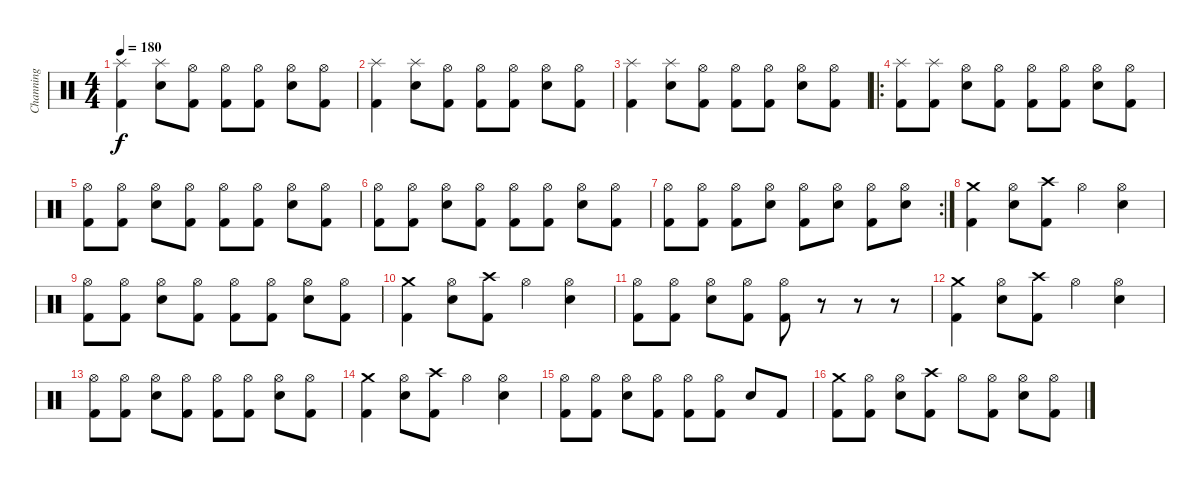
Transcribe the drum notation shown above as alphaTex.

\track ("Channing" "Channing") {instrument percussion}
\staff {score}
\articulation defaults
\ts (4 4)
\tempo 180
\clef neutral
\ks c
("Splash (hit)" "Kick (hit) 2").4{dy f} ("Splash (hit)" "Snare (hit) 2").8 ("Hi-Hat (open)" "Kick (hit) 2").8 ("Hi-Hat (open)" "Kick (hit) 2").8 ("Hi-Hat (open)" "Kick (hit) 2").8 ("Hi-Hat (open)" "Snare (hit) 2").8 ("Hi-Hat (open)" "Kick (hit) 2").8 |
("Splash (hit)" "Kick (hit) 2").4 ("Splash (hit)" "Snare (hit) 2").8 ("Hi-Hat (open)" "Kick (hit) 2").8 ("Hi-Hat (open)" "Kick (hit) 2").8 ("Hi-Hat (open)" "Kick (hit) 2").8 ("Hi-Hat (open)" "Snare (hit) 2").8 ("Hi-Hat (open)" "Kick (hit) 2").8 |
("Splash (hit)" "Kick (hit) 2").4 ("Splash (hit)" "Snare (hit) 2").8 ("Hi-Hat (open)" "Kick (hit) 2").8 ("Hi-Hat (open)" "Kick (hit) 2").8 ("Hi-Hat (open)" "Kick (hit) 2").8 ("Hi-Hat (open)" "Snare (hit) 2").8 ("Hi-Hat (open)" "Kick (hit) 2").8 |
\ro
("Splash (hit)" "Kick (hit) 2").8 ("Splash (hit)" "Kick (hit) 2").8 ("Hi-Hat (open)" "Snare (hit) 2").8 ("Hi-Hat (open)" "Kick (hit) 2").8 ("Hi-Hat (open)" "Kick (hit) 2").8 ("Hi-Hat (open)" "Kick (hit) 2").8 ("Hi-Hat (open)" "Snare (hit) 2").8 ("Hi-Hat (open)" "Kick (hit) 2").8 |
("Hi-Hat (open)" "Kick (hit) 2").8 ("Hi-Hat (open)" "Kick (hit) 2").8 ("Hi-Hat (open)" "Snare (hit) 2").8 ("Hi-Hat (open)" "Kick (hit) 2").8 ("Hi-Hat (open)" "Kick (hit) 2").8 ("Hi-Hat (open)" "Kick (hit) 2").8 ("Hi-Hat (open)" "Snare (hit) 2").8 ("Hi-Hat (open)" "Kick (hit) 2").8 |
("Hi-Hat (open)" "Kick (hit) 2").8 ("Hi-Hat (open)" "Kick (hit) 2").8 ("Hi-Hat (open)" "Snare (hit) 2").8 ("Hi-Hat (open)" "Kick (hit) 2").8 ("Hi-Hat (open)" "Kick (hit) 2").8 ("Hi-Hat (open)" "Kick (hit) 2").8 ("Hi-Hat (open)" "Snare (hit) 2").8 ("Hi-Hat (open)" "Kick (hit) 2").8 |
\rc 2
("Hi-Hat (open)" "Kick (hit) 2").8 ("Hi-Hat (open)" "Kick (hit) 2").8 ("Hi-Hat (open)" "Kick (hit) 2").8 ("Hi-Hat (open)" "Snare (hit) 2").8 ("Hi-Hat (open)" "Kick (hit) 2").8 ("Hi-Hat (open)" "Snare (hit) 2").8 ("Hi-Hat (open)" "Kick (hit) 2").8 ("Hi-Hat (open)" "Snare (hit) 2").8 |
("Crash medium (hit)" "Kick (hit) 2").4 ("Hi-Hat (open)" "Snare (hit) 2").8 ("Crash high (hit)" "Kick (hit) 2").8 "Hi-Hat (open)".4 ("Hi-Hat (open)" "Snare (hit) 2").4 |
("Hi-Hat (open)" "Kick (hit) 2").8 ("Hi-Hat (open)" "Kick (hit) 2").8 ("Hi-Hat (open)" "Snare (hit) 2").8 ("Hi-Hat (open)" "Kick (hit) 2").8 ("Hi-Hat (open)" "Kick (hit) 2").8 ("Hi-Hat (open)" "Kick (hit) 2").8 ("Hi-Hat (open)" "Snare (hit) 2").8 ("Hi-Hat (open)" "Kick (hit) 2").8 |
("Crash medium (hit)" "Kick (hit) 2").4 ("Hi-Hat (open)" "Snare (hit) 2").8 ("Crash high (hit)" "Kick (hit) 2").8 "Hi-Hat (open)".4 ("Hi-Hat (open)" "Snare (hit) 2").4 |
("Hi-Hat (open)" "Kick (hit) 2").8 ("Hi-Hat (open)" "Kick (hit) 2").8 ("Hi-Hat (open)" "Snare (hit) 2").8 ("Hi-Hat (open)" "Kick (hit) 2").8 ("Hi-Hat (open)" "Kick (hit) 2").8 r.8 r.8 r.8 |
("Crash medium (hit)" "Kick (hit) 2").4 ("Hi-Hat (open)" "Snare (hit) 2").8 ("Crash high (hit)" "Kick (hit) 2").8 "Hi-Hat (open)".4 ("Hi-Hat (open)" "Snare (hit) 2").4 |
("Hi-Hat (open)" "Kick (hit) 2").8 ("Hi-Hat (open)" "Kick (hit) 2").8 ("Hi-Hat (open)" "Snare (hit) 2").8 ("Hi-Hat (open)" "Kick (hit) 2").8 ("Hi-Hat (open)" "Kick (hit) 2").8 ("Hi-Hat (open)" "Kick (hit) 2").8 ("Hi-Hat (open)" "Snare (hit) 2").8 ("Hi-Hat (open)" "Kick (hit) 2").8 |
("Crash medium (hit)" "Kick (hit) 2").4 ("Hi-Hat (open)" "Snare (hit) 2").8 ("Crash high (hit)" "Kick (hit) 2").8 "Hi-Hat (open)".4 ("Hi-Hat (open)" "Snare (hit) 2").4 |
("Hi-Hat (open)" "Kick (hit) 2").8 ("Hi-Hat (open)" "Kick (hit) 2").8 ("Hi-Hat (open)" "Snare (hit) 2").8 ("Hi-Hat (open)" "Kick (hit) 2").8 ("Hi-Hat (open)" "Kick (hit) 2").8 ("Hi-Hat (open)" "Kick (hit) 2").8 "Snare (hit) 2".8 "Kick (hit) 2".8 |
("Crash medium (hit)" "Kick (hit) 2").8 ("Hi-Hat (open)" "Kick (hit) 2").8 ("Hi-Hat (open)" "Snare (hit) 2").8 ("Crash high (hit)" "Kick (hit) 2").8 "Hi-Hat (open)".8 ("Hi-Hat (open)" "Kick (hit) 2").8 ("Hi-Hat (open)" "Snare (hit) 2").8 ("Hi-Hat (open)" "Kick (hit) 2").8
